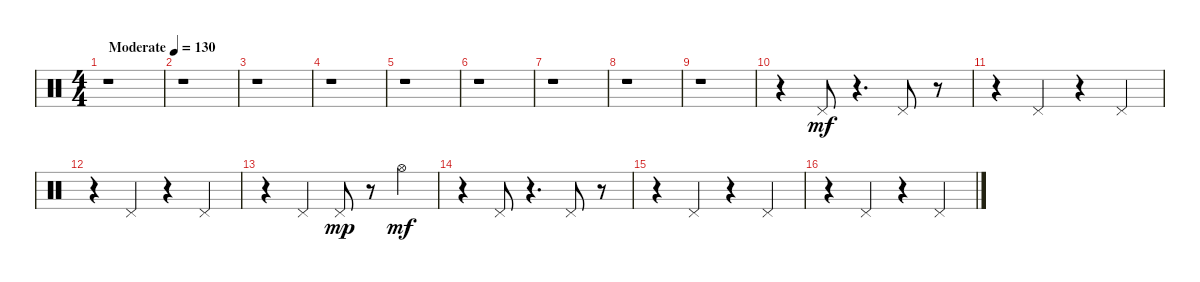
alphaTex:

\track "" {instrument percussion}
\staff {score}
\articulation defaults
\ts (4 4)
\tempo (130 "Moderate")
\clef neutral
\ks c
r.1{dy mf} |
r.1 |
r.1 |
r.1 |
r.1 |
r.1 |
r.1 |
r.1 |
r.1 |
r.4 "Pedal Hi-Hat (hit)".8 r.4{d} "Pedal Hi-Hat (hit)".8 r.8 |
r.4 "Pedal Hi-Hat (hit)".4 r.4 "Pedal Hi-Hat (hit)".4 |
r.4 "Pedal Hi-Hat (hit)".4 r.4 "Pedal Hi-Hat (hit)".4 |
r.4 "Pedal Hi-Hat (hit)".4 "Pedal Hi-Hat (hit)".8{dy mp} r.8 "Hi-Hat (open)".4{dy mf} |
r.4 "Pedal Hi-Hat (hit)".8 r.4{d} "Pedal Hi-Hat (hit)".8 r.8 |
r.4 "Pedal Hi-Hat (hit)".4 r.4 "Pedal Hi-Hat (hit)".4 |
r.4 "Pedal Hi-Hat (hit)".4 r.4 "Pedal Hi-Hat (hit)".4
